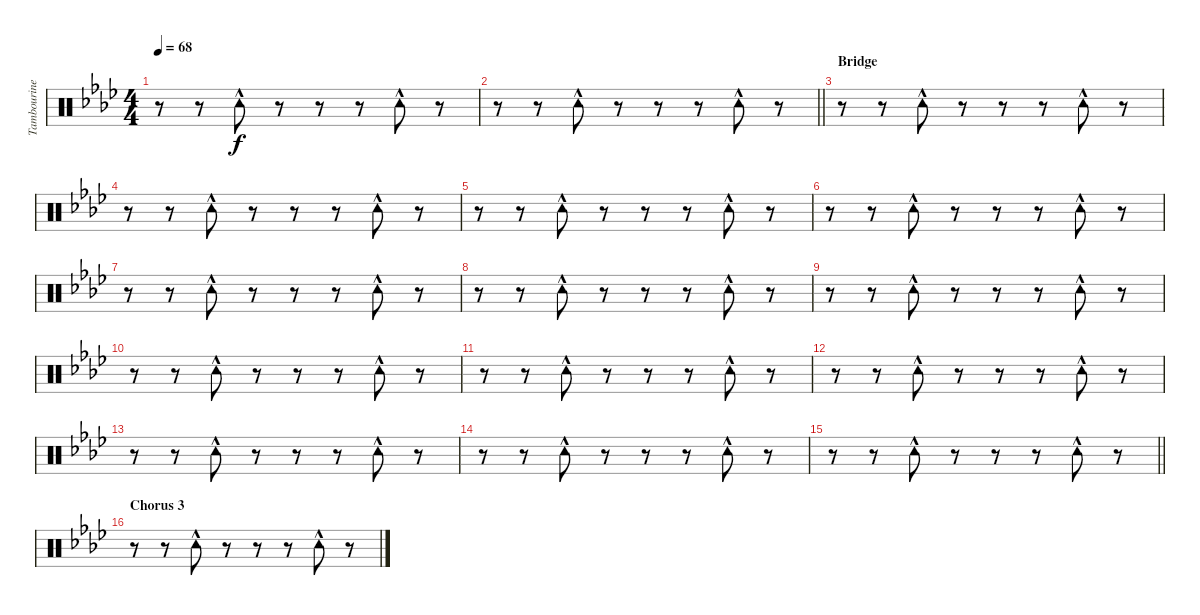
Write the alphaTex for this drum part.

\track ("Tambourine" "Tambourine") {instrument percussion}
\staff {score}
\articulation defaults
\ts (4 4)
\tempo 68
\clef neutral
\ks ab
r.8{dy f} r.8 "Tambourine (hit)"{hac}.8 r.8 r.8 r.8 "Tambourine (hit)"{hac}.8 r.8 |
\barLineRight lightlight
r.8 r.8 "Tambourine (hit)"{hac}.8 r.8 r.8 r.8 "Tambourine (hit)"{hac}.8 r.8 |
\section ("" "Bridge")
r.8 r.8 "Tambourine (hit)"{hac}.8 r.8 r.8 r.8 "Tambourine (hit)"{hac}.8 r.8 |
r.8 r.8 "Tambourine (hit)"{hac}.8 r.8 r.8 r.8 "Tambourine (hit)"{hac}.8 r.8 |
r.8 r.8 "Tambourine (hit)"{hac}.8 r.8 r.8 r.8 "Tambourine (hit)"{hac}.8 r.8 |
r.8 r.8 "Tambourine (hit)"{hac}.8 r.8 r.8 r.8 "Tambourine (hit)"{hac}.8 r.8 |
r.8 r.8 "Tambourine (hit)"{hac}.8 r.8 r.8 r.8 "Tambourine (hit)"{hac}.8 r.8 |
r.8 r.8 "Tambourine (hit)"{hac}.8 r.8 r.8 r.8 "Tambourine (hit)"{hac}.8 r.8 |
r.8 r.8 "Tambourine (hit)"{hac}.8 r.8 r.8 r.8 "Tambourine (hit)"{hac}.8 r.8 |
r.8 r.8 "Tambourine (hit)"{hac}.8 r.8 r.8 r.8 "Tambourine (hit)"{hac}.8 r.8 |
r.8 r.8 "Tambourine (hit)"{hac}.8 r.8 r.8 r.8 "Tambourine (hit)"{hac}.8 r.8 |
r.8 r.8 "Tambourine (hit)"{hac}.8 r.8 r.8 r.8 "Tambourine (hit)"{hac}.8 r.8 |
r.8 r.8 "Tambourine (hit)"{hac}.8 r.8 r.8 r.8 "Tambourine (hit)"{hac}.8 r.8 |
r.8 r.8 "Tambourine (hit)"{hac}.8 r.8 r.8 r.8 "Tambourine (hit)"{hac}.8 r.8 |
\barLineRight lightlight
r.8 r.8 "Tambourine (hit)"{hac}.8 r.8 r.8 r.8 "Tambourine (hit)"{hac}.8 r.8 |
\section ("" "Chorus 3")
r.8 r.8 "Tambourine (hit)"{hac}.8 r.8 r.8 r.8 "Tambourine (hit)"{hac}.8 r.8
